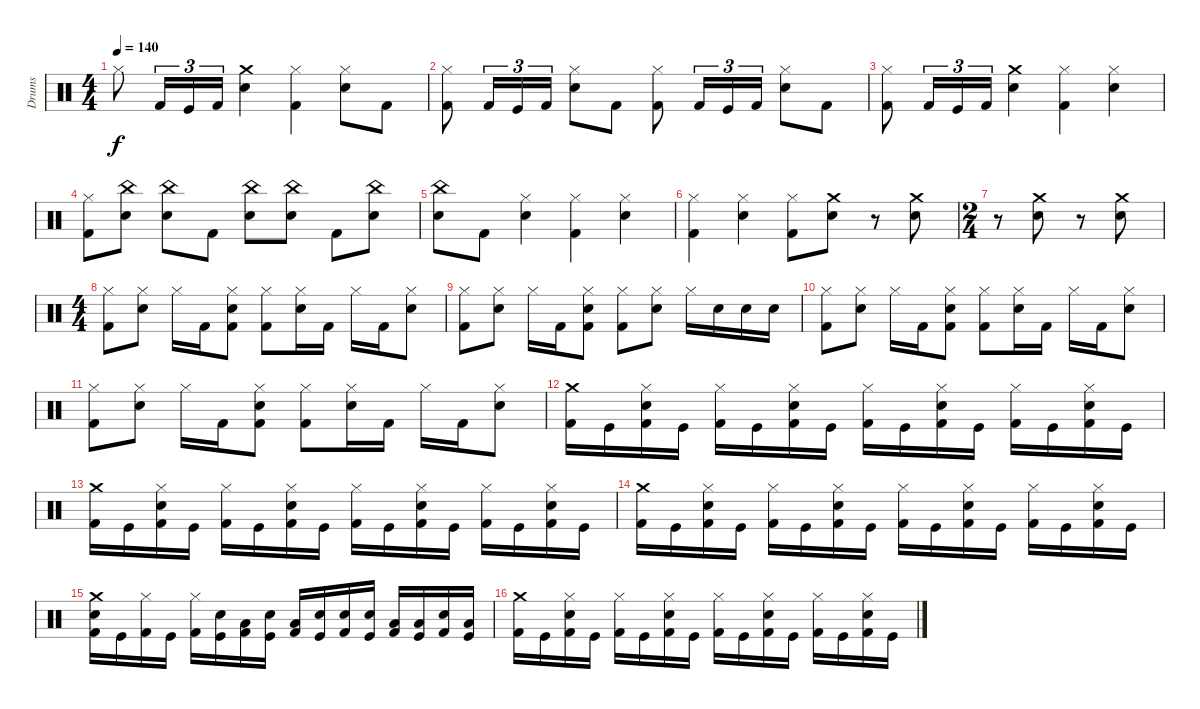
\track ("Drums" "Drums") {instrument percussion}
\staff {score}
\articulation defaults
\ts (4 4)
\tempo 140
\clef neutral
\ks c "Hi-Hat (closed)".8{dy f} "Kick (hit) 2".16{tu (3 2)} "Kick (hit)".16{tu (3 2)} "Kick (hit) 2".16{tu (3 2)}
("Snare (hit) 2" "Crash medium (hit)").4 ("Hi-Hat (closed)" "Kick (hit) 2").4 ("Snare (hit) 2" "Hi-Hat (closed)").8 "Kick (hit) 2".8 |
("Kick (hit) 2" "Hi-Hat (closed)").8 "Kick (hit) 2".16{tu (3 2)} "Kick (hit)".16{tu (3 2)} "Kick (hit) 2".16{tu (3 2)} ("Snare (hit) 2" "Hi-Hat (closed)").8 "Kick (hit) 2".8 ("Kick (hit) 2" "Hi-Hat (closed)").8 "Kick (hit) 2".16{tu (3 2)} "Kick (hit)".16{tu (3 2)} "Kick (hit) 2".16{tu (3 2)} ("Snare (hit) 2" "Hi-Hat (closed)").8 "Kick (hit) 2".8 |
("Hi-Hat (closed)" "Kick (hit) 2").8 "Kick (hit) 2".16{tu (3 2)} "Kick (hit)".16{tu (3 2)} "Kick (hit) 2".16{tu (3 2)} ("Snare (hit) 2" "Crash medium (hit)").4 ("Kick (hit) 2" "Hi-Hat (closed)").4 ("Hi-Hat (closed)" "Snare (hit) 2").4 |
("Hi-Hat (closed)" "Kick (hit) 2").8 ("China (hit)" "Snare (hit) 2").8 ("Snare (hit) 2" "China (hit)").8 "Kick (hit) 2".8 ("Snare (hit) 2" "China (hit)").8 ("Snare (hit) 2" "China (hit)").8 "Kick (hit) 2".8 ("Snare (hit) 2" "China (hit)").8 |
("China (hit)" "Snare (hit) 2").8 "Kick (hit) 2".8 ("Snare (hit) 2" "Hi-Hat (closed)").4 ("Hi-Hat (closed)" "Kick (hit) 2").4 ("Snare (hit) 2" "Hi-Hat (closed)").4 |
("Kick (hit) 2" "Hi-Hat (closed)").4 ("Hi-Hat (closed)" "Snare (hit) 2").4 ("Hi-Hat (closed)" "Kick (hit) 2").8 ("Crash medium (hit)" "Snare (hit) 2").8 r.8 ("Snare (hit) 2" "Crash medium (hit)").8 |
\ts (2 4)
r.8 ("Crash medium (hit)" "Snare (hit) 2").8 r.8 ("Crash medium (hit)" "Snare (hit) 2").8 |
\ts (4 4)
("Hi-Hat (closed)" "Kick (hit) 2").8 ("Snare (hit) 2" "Hi-Hat (closed)").8 "Hi-Hat (closed)".16 "Kick (hit) 2".16 ("Snare (hit) 2" "Hi-Hat (closed)" "Kick (hit) 2").8 ("Hi-Hat (closed)" "Kick (hit) 2").8 ("Snare (hit) 2" "Hi-Hat (closed)").16 "Kick (hit) 2".16 "Hi-Hat (closed)".16 "Kick (hit) 2".16 ("Snare (hit) 2" "Hi-Hat (closed)").8 |
("Kick (hit) 2" "Hi-Hat (closed)").8 ("Snare (hit) 2" "Hi-Hat (closed)").8 "Hi-Hat (closed)".16 "Kick (hit) 2".16 ("Kick (hit) 2" "Snare (hit) 2" "Hi-Hat (closed)").8 ("Hi-Hat (closed)" "Kick (hit) 2").8 ("Snare (hit) 2" "Hi-Hat (closed)").8 "Hi-Hat (closed)".16 "Snare (hit) 2".16 "Snare (hit) 2".16 "Snare (hit) 2".16 |
("Kick (hit) 2" "Hi-Hat (closed)").8 ("Snare (hit) 2" "Hi-Hat (closed)").8 "Hi-Hat (closed)".16 "Kick (hit) 2".16 ("Kick (hit) 2" "Snare (hit) 2" "Hi-Hat (closed)").8 ("Kick (hit) 2" "Hi-Hat (closed)").8 ("Snare (hit) 2" "Hi-Hat (closed)").16 "Kick (hit) 2".16 "Hi-Hat (closed)".16 "Kick (hit) 2".16 ("Hi-Hat (closed)" "Snare (hit) 2").8 |
("Kick (hit) 2" "Hi-Hat (closed)").8 ("Snare (hit) 2" "Hi-Hat (closed)").8 "Hi-Hat (closed)".16 "Kick (hit) 2".16 ("Kick (hit) 2" "Snare (hit) 2" "Hi-Hat (closed)").8 ("Kick (hit) 2" "Hi-Hat (closed)").8 ("Snare (hit) 2" "Hi-Hat (closed)").16 "Kick (hit) 2".16 "Hi-Hat (closed)".16 "Kick (hit) 2".16 ("Hi-Hat (closed)" "Snare (hit) 2").8 |
("Crash medium (hit)" "Kick (hit) 2").16 "Kick (hit)".16 ("Snare (hit) 2" "Hi-Hat (closed)" "Kick (hit) 2").16 "Kick (hit)".16 ("Hi-Hat (closed)" "Kick (hit) 2").16 "Kick (hit)".16 ("Snare (hit) 2" "Hi-Hat (closed)" "Kick (hit) 2").16 "Kick (hit)".16 ("Hi-Hat (closed)" "Kick (hit) 2").16 "Kick (hit)".16 ("Snare (hit) 2" "Hi-Hat (closed)" "Kick (hit) 2").16 "Kick (hit)".16 ("Hi-Hat (closed)" "Kick (hit) 2").16 "Kick (hit)".16 ("Snare (hit) 2" "Hi-Hat (closed)" "Kick (hit) 2").16 "Kick (hit)".16 |
("Crash medium (hit)" "Kick (hit) 2").16 "Kick (hit)".16 ("Snare (hit) 2" "Hi-Hat (closed)" "Kick (hit) 2").16 "Kick (hit)".16 ("Hi-Hat (closed)" "Kick (hit) 2").16 "Kick (hit)".16 ("Snare (hit) 2" "Hi-Hat (closed)" "Kick (hit) 2").16 "Kick (hit)".16 ("Hi-Hat (closed)" "Kick (hit) 2").16 "Kick (hit)".16 ("Snare (hit) 2" "Hi-Hat (closed)" "Kick (hit) 2").16 "Kick (hit)".16 ("Hi-Hat (closed)" "Kick (hit) 2").16 "Kick (hit)".16 ("Snare (hit) 2" "Hi-Hat (closed)" "Kick (hit) 2").16 "Kick (hit)".16 |
("Crash medium (hit)" "Kick (hit) 2").16 "Kick (hit)".16 ("Snare (hit) 2" "Hi-Hat (closed)" "Kick (hit) 2").16 "Kick (hit)".16 ("Hi-Hat (closed)" "Kick (hit) 2").16 "Kick (hit)".16 ("Snare (hit) 2" "Hi-Hat (closed)" "Kick (hit) 2").16 "Kick (hit)".16 ("Hi-Hat (closed)" "Kick (hit) 2").16 "Kick (hit)".16 ("Snare (hit) 2" "Hi-Hat (closed)" "Kick (hit) 2").16 "Kick (hit)".16 ("Hi-Hat (closed)" "Kick (hit) 2").16 "Kick (hit)".16 ("Snare (hit) 2" "Hi-Hat (closed)" "Kick (hit) 2").16 "Kick (hit)".16 |
("Snare (hit) 2" "Crash medium (hit)" "Kick (hit) 2").16 "Kick (hit)".16 ("Hi-Hat (closed)" "Kick (hit) 2").16 "Kick (hit)".16 ("Hi-Hat (closed)" "Kick (hit) 2").16 ("Snare (hit) 2" "Kick (hit)").16 ("Low Tom (hit)" "Kick (hit) 2").16 ("Snare (hit) 2" "Kick (hit)").16 ("Low Tom (hit)" "Kick (hit) 2").16 ("Snare (hit) 2" "Kick (hit)").16 ("Snare (hit) 2" "Kick (hit) 2").16 ("Snare (hit) 2" "Kick (hit)").16 ("Low Tom (hit)" "Kick (hit) 2").16 ("Low Tom (hit)" "Kick (hit)").16 ("Snare (hit) 2" "Kick (hit) 2").16 ("Low Tom (hit)" "Kick (hit)").16 |
("Crash medium (hit)" "Kick (hit) 2").16 "Kick (hit)".16 ("Snare (hit) 2" "Hi-Hat (closed)" "Kick (hit) 2").16 "Kick (hit)".16 ("Hi-Hat (closed)" "Kick (hit) 2").16 "Kick (hit)".16 ("Snare (hit) 2" "Hi-Hat (closed)" "Kick (hit) 2").16 "Kick (hit)".16 ("Hi-Hat (closed)" "Kick (hit) 2").16 "Kick (hit)".16 ("Snare (hit) 2" "Hi-Hat (closed)" "Kick (hit) 2").16 "Kick (hit)".16 ("Hi-Hat (closed)" "Kick (hit) 2").16 "Kick (hit)".16 ("Snare (hit) 2" "Hi-Hat (closed)" "Kick (hit) 2").16 "Kick (hit)".16
